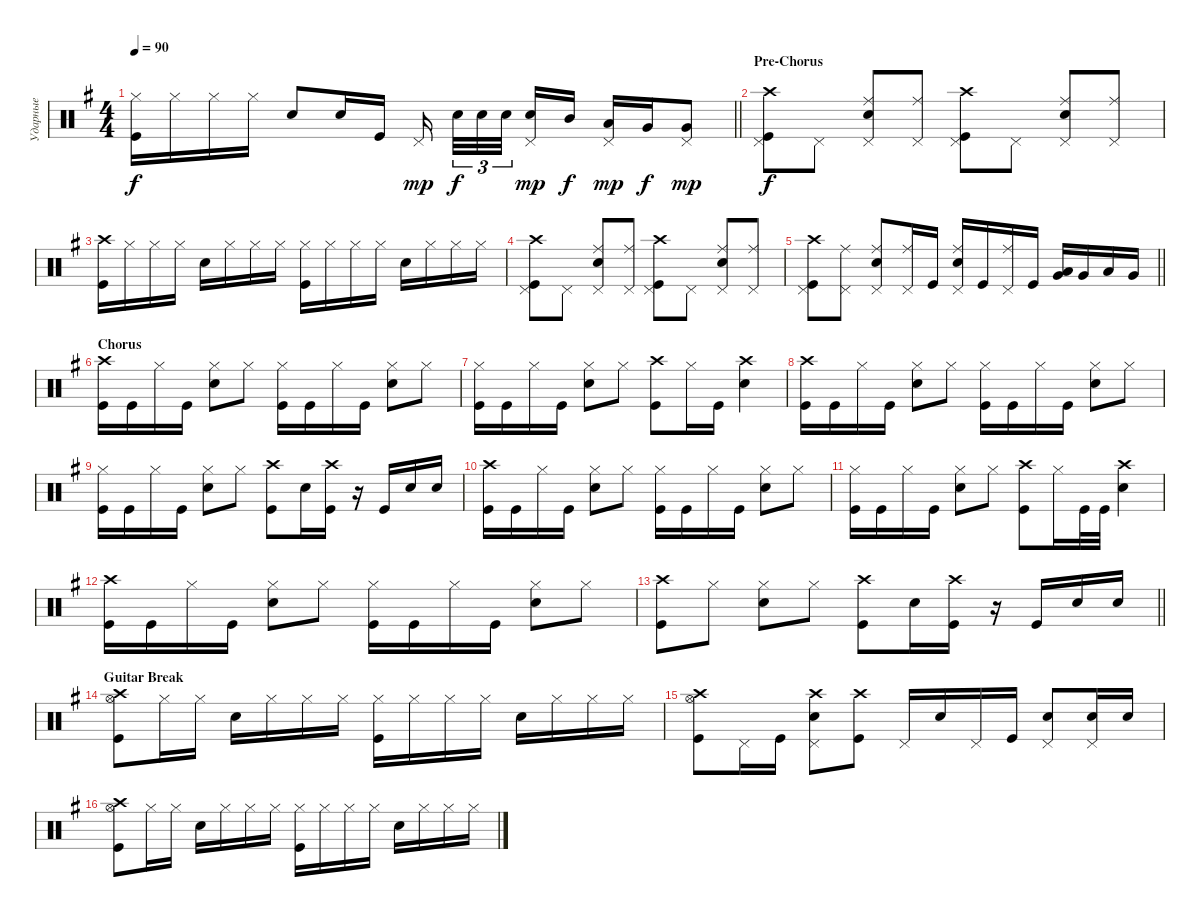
\track ("Ударные" "Ударные") {instrument percussion}
\staff {score}
\articulation defaults
\ts (4 4)
\tempo 90
\clef neutral
\barLineRight lightlight
\ks eminor
("Kick (hit)" "Hi-Hat (closed)").16{dy f} "Hi-Hat (closed)".16 "Hi-Hat (closed)".16 "Hi-Hat (closed)".16 "Snare (hit) 2".8 "Snare (hit) 2".16 "Kick (hit)".16 "Pedal Hi-Hat (hit)".16{dy mp beam splitsecondary} "Snare (hit) 2".32{tu (3 2) dy f} "Snare (hit) 2".32{tu (3 2)} "Snare (hit) 2".32{tu (3 2) beam splitsecondary} ("Snare (hit) 2" "Pedal Hi-Hat (hit)").16{dy mp} "Mid Tom (hit)".16{dy f} ("Low Tom (hit)" "Pedal Hi-Hat (hit)").16{dy mp} "Very Low Tom (hit)".16{dy f} ("Very Low Tom (hit)" "Pedal Hi-Hat (hit)").8{dy mp} |
\section ("" "Pre-Chorus")
("Kick (hit)" "Crash high (hit)" "Pedal Hi-Hat (hit)").8{dy f} "Pedal Hi-Hat (hit)".8 ("Ride (middle)" "Pedal Hi-Hat (hit)" "Snare (hit) 2").8 ("Ride (middle)" "Pedal Hi-Hat (hit)").8 ("Kick (hit)" "Crash high (hit)" "Pedal Hi-Hat (hit)").8 "Pedal Hi-Hat (hit)".8 ("Ride (middle)" "Pedal Hi-Hat (hit)" "Snare (hit) 2").8 ("Ride (middle)" "Pedal Hi-Hat (hit)").8 |
("Kick (hit)" "Crash high (hit)").16 "Hi-Hat (closed)".16 "Hi-Hat (closed)".16 "Hi-Hat (closed)".16 "Snare (hit) 2".16 "Hi-Hat (closed)".16 "Hi-Hat (closed)".16 "Hi-Hat (closed)".16 ("Kick (hit)" "Hi-Hat (closed)").16 "Hi-Hat (closed)".16 "Hi-Hat (closed)".16 "Hi-Hat (closed)".16 "Snare (hit) 2".16 "Hi-Hat (closed)".16 "Hi-Hat (closed)".16 "Hi-Hat (closed)".16 |
("Kick (hit)" "Crash high (hit)" "Pedal Hi-Hat (hit)").8 "Pedal Hi-Hat (hit)".8 ("Ride (middle)" "Pedal Hi-Hat (hit)" "Snare (hit) 2").8 ("Ride (middle)" "Pedal Hi-Hat (hit)").8 ("Kick (hit)" "Crash high (hit)" "Pedal Hi-Hat (hit)").8 "Pedal Hi-Hat (hit)".8 ("Ride (middle)" "Pedal Hi-Hat (hit)" "Snare (hit) 2").8 ("Ride (middle)" "Pedal Hi-Hat (hit)").8 |
\barLineRight lightlight
("Kick (hit)" "Crash high (hit)" "Pedal Hi-Hat (hit)").8 ("Pedal Hi-Hat (hit)" "Ride (middle)").8 ("Ride (middle)" "Pedal Hi-Hat (hit)" "Snare (hit) 2").8 ("Ride (middle)" "Pedal Hi-Hat (hit)").16 "Kick (hit)".16 ("Snare (hit) 2" "Pedal Hi-Hat (hit)" "Ride (middle)").16 "Kick (hit)".16 ("Pedal Hi-Hat (hit)" "Ride (middle)").16 "Kick (hit)".16 ("Very Low Tom (hit)" "Low Tom (hit)").16{bd 60} "Very Low Tom (hit)".16 "Low Tom (hit)".16 "Very Low Tom (hit)".16 |
\section ("" "Chorus")
("Kick (hit)" "Crash high (hit)").16 "Kick (hit)".16 "Hi-Hat (closed)".16 "Kick (hit)".16 ("Snare (hit) 2" "Hi-Hat (closed)").8 "Hi-Hat (closed)".8 ("Hi-Hat (closed)" "Kick (hit)").16 "Kick (hit)".16 "Hi-Hat (closed)".16 "Kick (hit)".16 ("Snare (hit) 2" "Hi-Hat (closed)").8 "Hi-Hat (closed)".8 |
("Hi-Hat (closed)" "Kick (hit)").16 "Kick (hit)".16 "Hi-Hat (closed)".16 "Kick (hit)".16 ("Snare (hit) 2" "Hi-Hat (closed)").8 "Hi-Hat (closed)".8 ("Kick (hit)" "Crash high (hit)").8 "Hi-Hat (closed)".16 "Kick (hit)".16 ("Snare (hit) 2" "Crash high (hit)").4 |
("Kick (hit)" "Crash high (hit)").16 "Kick (hit)".16 "Hi-Hat (closed)".16 "Kick (hit)".16 ("Snare (hit) 2" "Hi-Hat (closed)").8 "Hi-Hat (closed)".8 ("Hi-Hat (closed)" "Kick (hit)").16 "Kick (hit)".16 "Hi-Hat (closed)".16 "Kick (hit)".16 ("Snare (hit) 2" "Hi-Hat (closed)").8 "Hi-Hat (closed)".8 |
("Hi-Hat (closed)" "Kick (hit)").16 "Kick (hit)".16 "Hi-Hat (closed)".16 "Kick (hit)".16 ("Snare (hit) 2" "Hi-Hat (closed)").8 "Hi-Hat (closed)".8 ("Kick (hit)" "Crash high (hit)").8 "Snare (hit) 2".16 ("Kick (hit)" "Crash high (hit)").16 r.16 "Kick (hit)".16 "Snare (hit) 2".16 "Snare (hit) 2".16 |
("Kick (hit)" "Crash high (hit)").16 "Kick (hit)".16 "Hi-Hat (closed)".16 "Kick (hit)".16 ("Snare (hit) 2" "Hi-Hat (closed)").8 "Hi-Hat (closed)".8 ("Hi-Hat (closed)" "Kick (hit)").16 "Kick (hit)".16 "Hi-Hat (closed)".16 "Kick (hit)".16 ("Snare (hit) 2" "Hi-Hat (closed)").8 "Hi-Hat (closed)".8 |
("Hi-Hat (closed)" "Kick (hit)").16 "Kick (hit)".16 "Hi-Hat (closed)".16 "Kick (hit)".16 ("Snare (hit) 2" "Hi-Hat (closed)").8 "Hi-Hat (closed)".8 ("Kick (hit)" "Crash high (hit)").8 "Hi-Hat (closed)".16 "Kick (hit)".32 "Kick (hit)".32 ("Snare (hit) 2" "Crash high (hit)").4 |
("Kick (hit)" "Crash high (hit)").16 "Kick (hit)".16 "Hi-Hat (closed)".16 "Kick (hit)".16 ("Snare (hit) 2" "Hi-Hat (closed)").8 "Hi-Hat (closed)".8 ("Hi-Hat (closed)" "Kick (hit)").16 "Kick (hit)".16 "Hi-Hat (closed)".16 "Kick (hit)".16 ("Snare (hit) 2" "Hi-Hat (closed)").8 "Hi-Hat (closed)".8 |
\barLineRight lightlight
("Crash high (hit)" "Kick (hit)").8 "Hi-Hat (closed)".8 ("Snare (hit) 2" "Hi-Hat (closed)").8 "Hi-Hat (closed)".8 ("Kick (hit)" "Crash high (hit)").8 "Snare (hit) 2".16 ("Kick (hit)" "Crash high (hit)").16 r.16 "Kick (hit)".16 "Snare (hit) 2".16 "Snare (hit) 2".16 |
\section ("" "Guitar Break")
("Kick (hit)" "Crash high (hit)" "Hi-Hat (open)").8 "Hi-Hat (closed)".16 "Hi-Hat (closed)".16 "Snare (hit) 2".16 "Hi-Hat (closed)".16 "Hi-Hat (closed)".16 "Hi-Hat (closed)".16 ("Hi-Hat (closed)" "Kick (hit)").16 "Hi-Hat (closed)".16 "Hi-Hat (closed)".16 "Hi-Hat (closed)".16 "Snare (hit) 2".16 "Hi-Hat (closed)".16 "Hi-Hat (closed)".16 "Hi-Hat (closed)".16 |
("Kick (hit)" "Crash high (hit)" "Hi-Hat (open)").8 "Pedal Hi-Hat (hit)".16 "Kick (hit)".16 ("Crash high (hit)" "Snare (hit) 2" "Pedal Hi-Hat (hit)").8 ("Kick (hit)" "Crash high (hit)").8 "Pedal Hi-Hat (hit)".16 "Snare (hit) 2".16 "Pedal Hi-Hat (hit)".16 "Kick (hit)".16 ("Snare (hit) 2" "Pedal Hi-Hat (hit)").8 ("Snare (hit) 2" "Pedal Hi-Hat (hit)").16 "Snare (hit) 2".16 |
("Kick (hit)" "Crash high (hit)" "Hi-Hat (open)").8 "Hi-Hat (closed)".16 "Hi-Hat (closed)".16 "Snare (hit) 2".16 "Hi-Hat (closed)".16 "Hi-Hat (closed)".16 "Hi-Hat (closed)".16 ("Hi-Hat (closed)" "Kick (hit)").16 "Hi-Hat (closed)".16 "Hi-Hat (closed)".16 "Hi-Hat (closed)".16 "Snare (hit) 2".16 "Hi-Hat (closed)".16 "Hi-Hat (closed)".16 "Hi-Hat (closed)".16
